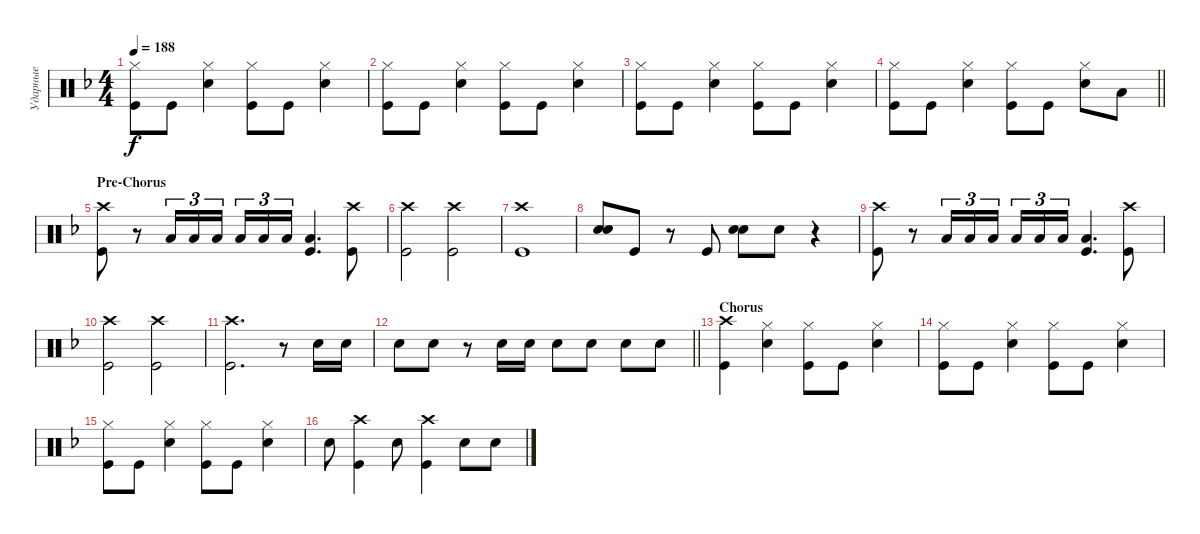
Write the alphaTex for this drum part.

\track ("Ударные" "Ударные") {instrument percussion}
\staff {score}
\articulation defaults
\ts (4 4)
\tempo 188
\clef neutral
\ks dminor
("Kick (hit)" "Hi-Hat (closed)").8{dy f} "Kick (hit)".8 ("Snare (hit) 2" "Hi-Hat (closed)").4 ("Kick (hit)" "Hi-Hat (closed)").8 "Kick (hit)".8 ("Hi-Hat (closed)" "Snare (hit) 2").4 |
("Kick (hit)" "Hi-Hat (closed)").8 "Kick (hit)".8 ("Snare (hit) 2" "Hi-Hat (closed)").4 ("Kick (hit)" "Hi-Hat (closed)").8 "Kick (hit)".8 ("Hi-Hat (closed)" "Snare (hit) 2").4 |
("Kick (hit)" "Hi-Hat (closed)").8 "Kick (hit)".8 ("Snare (hit) 2" "Hi-Hat (closed)").4 ("Kick (hit)" "Hi-Hat (closed)").8 "Kick (hit)".8 ("Hi-Hat (closed)" "Snare (hit) 2").4 |
\barLineRight lightlight
("Kick (hit)" "Hi-Hat (closed)").8 "Kick (hit)".8 ("Snare (hit) 2" "Hi-Hat (closed)").4 ("Kick (hit)" "Hi-Hat (closed)").8 "Kick (hit)".8 ("Hi-Hat (closed)" "Snare (hit) 2").8 "Low Tom (hit)".8 |
\section ("" "Pre-Chorus")
("Kick (hit)" "Crash high (hit)").8 r.8 "Low Floor Tom (hit)".16{tu (3 2)} "Low Floor Tom (hit)".16{tu (3 2)} "Low Floor Tom (hit)".16{tu (3 2) beam splitsecondary} "Low Floor Tom (hit)".16{tu (3 2)} "Low Floor Tom (hit)".16{tu (3 2)} "Low Floor Tom (hit)".16{tu (3 2)} ("Kick (hit)" "Low Floor Tom (hit)").4{d} ("Kick (hit)" "Crash high (hit)").8 |
("Kick (hit)" "Crash high (hit)").2 ("Kick (hit)" "Crash high (hit)").2 |
("Kick (hit)" "Crash high (hit)").1 |
("Snare (hit) 2" "Snare (hit) 2").8{bd 240} "Kick (hit)".8 r.8 "Kick (hit)".8 ("Snare (hit) 2" "Snare (hit) 2").8{bd 240} "Snare (hit) 2".8 r.4 |
("Kick (hit)" "Crash high (hit)").8 r.8 "Low Floor Tom (hit)".16{tu (3 2)} "Low Floor Tom (hit)".16{tu (3 2)} "Low Floor Tom (hit)".16{tu (3 2) beam splitsecondary} "Low Floor Tom (hit)".16{tu (3 2)} "Low Floor Tom (hit)".16{tu (3 2)} "Low Floor Tom (hit)".16{tu (3 2)} ("Kick (hit)" "Low Floor Tom (hit)").4{d} ("Kick (hit)" "Crash high (hit)").8 |
("Kick (hit)" "Crash high (hit)").2 ("Kick (hit)" "Crash high (hit)").2 |
("Kick (hit)" "Crash high (hit)").2{d} r.8 "Snare (hit) 2".16 "Snare (hit) 2".16 |
\barLineRight lightlight "Snare (hit) 2".8 "Snare (hit) 2".8
r.8 "Snare (hit) 2".16 "Snare (hit) 2".16 "Snare (hit) 2".8 "Snare (hit) 2".8 "Snare (hit) 2".8 "Snare (hit) 2".8 |
\section ("" "Chorus")
("Kick (hit)" "Crash high (hit)").4 ("Snare (hit) 2" "Hi-Hat (closed)").4 ("Kick (hit)" "Hi-Hat (closed)").8 "Kick (hit)".8 ("Hi-Hat (closed)" "Snare (hit) 2").4 |
("Kick (hit)" "Hi-Hat (closed)").8 "Kick (hit)".8 ("Snare (hit) 2" "Hi-Hat (closed)").4 ("Kick (hit)" "Hi-Hat (closed)").8 "Kick (hit)".8 ("Hi-Hat (closed)" "Snare (hit) 2").4 |
("Kick (hit)" "Hi-Hat (closed)").8 "Kick (hit)".8 ("Snare (hit) 2" "Hi-Hat (closed)").4 ("Kick (hit)" "Hi-Hat (closed)").8 "Kick (hit)".8 ("Hi-Hat (closed)" "Snare (hit) 2").4 |
"Snare (hit) 2".8 ("Kick (hit)" "Crash high (hit)").4 "Snare (hit) 2".8 ("Kick (hit)" "Crash high (hit)").4 "Snare (hit) 2".8 "Snare (hit) 2".8
